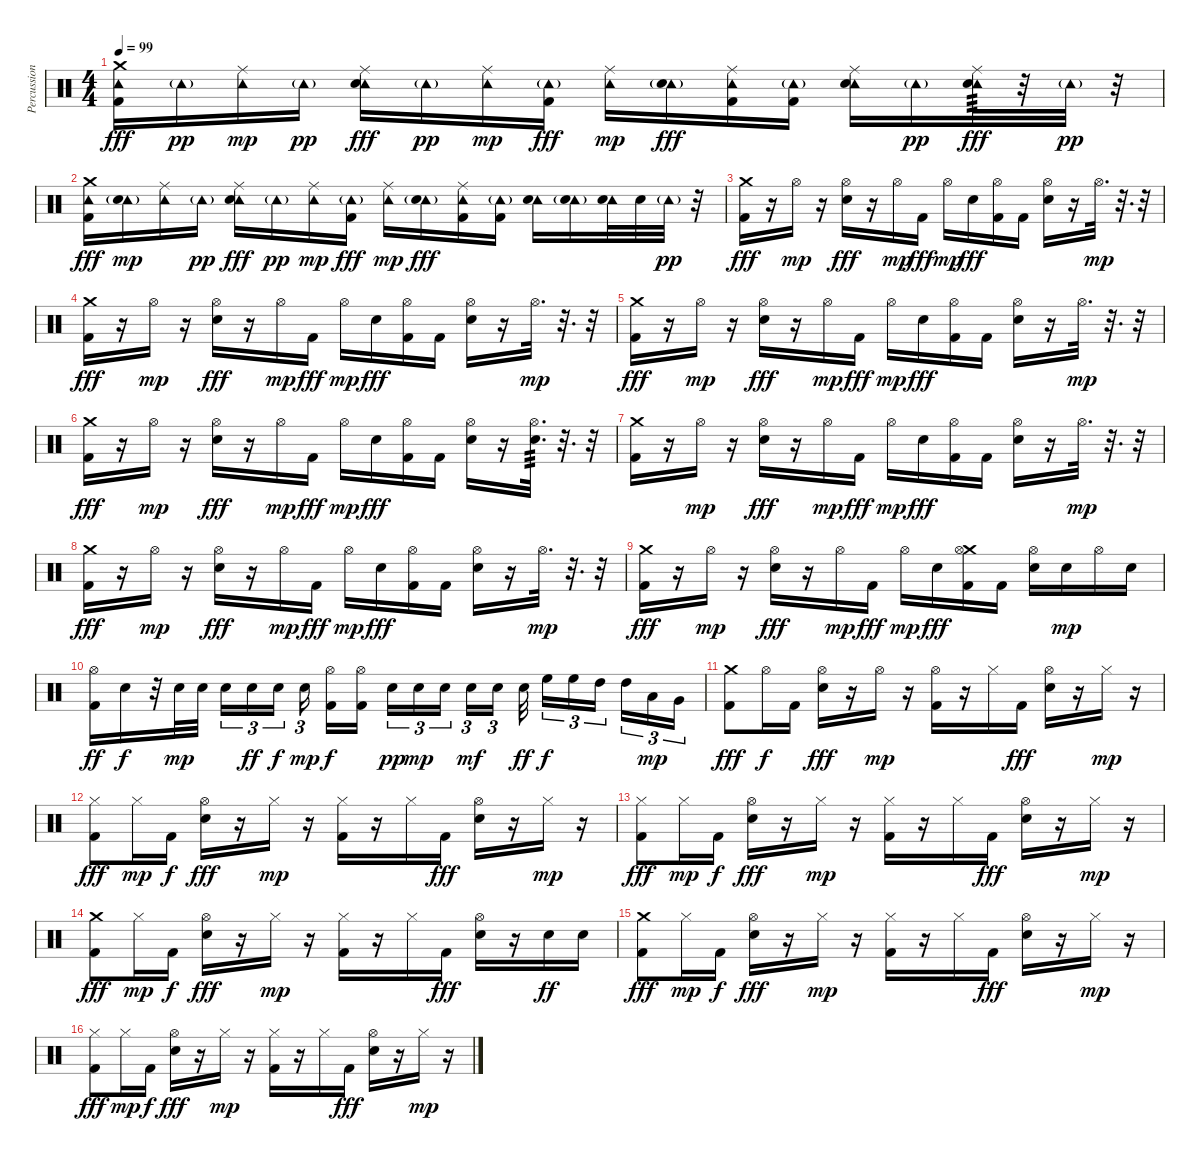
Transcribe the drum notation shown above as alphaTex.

\track ("Percussion" "Percussion") {instrument percussion}
\staff {score}
\articulation defaults
\ts (4 4)
\tempo 99
\clef neutral
\ks c
("Tambourine (hit)" "Crash medium (hit)" "Kick (hit) 2").16{dy fff} "Tambourine (hit)"{g}.16{dy pp} ("Tambourine (hit)" "Ride (middle)").16{dy mp} "Tambourine (hit)"{g}.16{dy pp} ("Tambourine (hit)" "Ride (middle)" "Snare (hit) 2").16{dy fff} "Tambourine (hit)"{g}.16{dy pp} ("Tambourine (hit)" "Ride (middle)").16{dy mp} ("Tambourine (hit)"{g} "Kick (hit) 2").16{dy fff} ("Tambourine (hit)" "Ride (middle)").16{dy mp} ("Tambourine (hit)"{g} "Snare (hit) 2").16{dy fff} ("Tambourine (hit)" "Ride (middle)" "Kick (hit) 2").16 ("Tambourine (hit)"{g} "Kick (hit) 2").16 ("Tambourine (hit)" "Ride (middle)" "Snare (hit) 2").16 "Tambourine (hit)"{g}.16{dy pp} ("Tambourine (hit)" "Ride (middle)" "Snare (hit) 2").32{tp 3 dy fff} r.32 "Tambourine (hit)"{g}.32{dy pp} r.32 |
("Tambourine (hit)" "Crash medium (hit)" "Kick (hit) 2").16{dy fff} ("Tambourine (hit)"{g} "Snare (hit) 2").16{dy mp} ("Tambourine (hit)" "Ride (middle)").16 "Tambourine (hit)"{g}.16{dy pp} ("Tambourine (hit)" "Ride (middle)" "Snare (hit) 2").16{dy fff} "Tambourine (hit)"{g}.16{dy pp} ("Tambourine (hit)" "Ride (middle)").16{dy mp} ("Tambourine (hit)"{g} "Kick (hit) 2").16{dy fff} ("Tambourine (hit)" "Ride (middle)").16{dy mp} ("Tambourine (hit)"{g} "Snare (hit) 2").16{dy fff} ("Tambourine (hit)" "Ride (middle)" "Kick (hit) 2").16 ("Tambourine (hit)"{g} "Kick (hit) 2").16 ("Tambourine (hit)" "Snare (hit) 2").16 ("Tambourine (hit)"{g} "Snare (hit) 2").16 ("Tambourine (hit)" "Snare (hit) 2").32 "Snare (hit) 2".32 "Tambourine (hit)"{g}.32{dy pp} r.32 |
("Crash medium (hit)" "Kick (hit) 2").16{dy fff} r.16 "Hi-Hat (open)".16{dy mp} r.16 ("Hi-Hat (open)" "Snare (hit) 2").16{dy fff} r.16 "Hi-Hat (open)".16{dy mp} "Kick (hit) 2".16{dy fff} "Hi-Hat (open)".16{dy mp} "Snare (hit) 2".16{dy fff} ("Hi-Hat (open)" "Kick (hit) 2").16 "Kick (hit) 2".16 ("Hi-Hat (open)" "Snare (hit) 2").16 r.16 "Hi-Hat (open)".32{d dy mp} r.32{d} r.32 |
("Crash medium (hit)" "Kick (hit) 2").16{dy fff} r.16 "Hi-Hat (open)".16{dy mp} r.16 ("Hi-Hat (open)" "Snare (hit) 2").16{dy fff} r.16 "Hi-Hat (open)".16{dy mp} "Kick (hit) 2".16{dy fff} "Hi-Hat (open)".16{dy mp} "Snare (hit) 2".16{dy fff} ("Hi-Hat (open)" "Kick (hit) 2").16 "Kick (hit) 2".16 ("Hi-Hat (open)" "Snare (hit) 2").16 r.16 "Hi-Hat (open)".32{d dy mp} r.32{d} r.32 |
("Crash medium (hit)" "Kick (hit) 2").16{dy fff} r.16 "Hi-Hat (open)".16{dy mp} r.16 ("Hi-Hat (open)" "Snare (hit) 2").16{dy fff} r.16 "Hi-Hat (open)".16{dy mp} "Kick (hit) 2".16{dy fff} "Hi-Hat (open)".16{dy mp} "Snare (hit) 2".16{dy fff} ("Hi-Hat (open)" "Kick (hit) 2").16 "Kick (hit) 2".16 ("Hi-Hat (open)" "Snare (hit) 2").16 r.16 "Hi-Hat (open)".32{d dy mp} r.32{d} r.32 |
("Crash medium (hit)" "Kick (hit) 2").16{dy fff} r.16 "Hi-Hat (open)".16{dy mp} r.16 ("Hi-Hat (open)" "Snare (hit) 2").16{dy fff} r.16 "Hi-Hat (open)".16{dy mp} "Kick (hit) 2".16{dy fff} "Hi-Hat (open)".16{dy mp} "Snare (hit) 2".16{dy fff} ("Hi-Hat (open)" "Kick (hit) 2").16 "Kick (hit) 2".16 ("Hi-Hat (open)" "Snare (hit) 2").16 r.16 ("Hi-Hat (open)" "Snare (hit) 2").32{d tp 3} r.32{d} r.32 |
("Crash medium (hit)" "Kick (hit) 2").16 r.16 "Hi-Hat (open)".16{dy mp} r.16 ("Hi-Hat (open)" "Snare (hit) 2").16{dy fff} r.16 "Hi-Hat (open)".16{dy mp} "Kick (hit) 2".16{dy fff} "Hi-Hat (open)".16{dy mp} "Snare (hit) 2".16{dy fff} ("Hi-Hat (open)" "Kick (hit) 2").16 "Kick (hit) 2".16 ("Hi-Hat (open)" "Snare (hit) 2").16 r.16 "Hi-Hat (open)".32{d dy mp} r.32{d} r.32 |
("Crash medium (hit)" "Kick (hit) 2").16{dy fff} r.16 "Hi-Hat (open)".16{dy mp} r.16 ("Hi-Hat (open)" "Snare (hit) 2").16{dy fff} r.16 "Hi-Hat (open)".16{dy mp} "Kick (hit) 2".16{dy fff} "Hi-Hat (open)".16{dy mp} "Snare (hit) 2".16{dy fff} ("Hi-Hat (open)" "Kick (hit) 2").16 "Kick (hit) 2".16 ("Hi-Hat (open)" "Snare (hit) 2").16 r.16 "Hi-Hat (open)".32{d dy mp} r.32{d} r.32 |
("Crash medium (hit)" "Kick (hit) 2").16{dy fff} r.16 "Hi-Hat (open)".16{dy mp} r.16 ("Hi-Hat (open)" "Snare (hit) 2").16{dy fff} r.16 "Hi-Hat (open)".16{dy mp} "Kick (hit) 2".16{dy fff} "Hi-Hat (open)".16{dy mp} "Snare (hit) 2".16{dy fff} ("Crash medium (hit)" "Hi-Hat (open)" "Kick (hit) 2").16 "Kick (hit) 2".16 ("Hi-Hat (open)" "Snare (hit) 2").16 "Snare (hit) 2".16{dy mp} "Hi-Hat (open)".16 "Snare (hit) 2".16 |
("Hi-Hat (open)" "Kick (hit) 2").16{dy ff} "Snare (hit) 2".16{dy f} r.32 "Snare (hit) 2".32{dy mp} "Snare (hit) 2".32{beam splitsecondary} "Snare (hit) 2".16{tu (3 2)} "Snare (hit) 2".16{tu (3 2) dy ff} "Snare (hit) 2".16{tu (3 2) dy f beam splitsecondary} "Snare (hit) 2".16{tu (3 2) dy mp beam splitsecondary} ("Hi-Hat (open)" "Kick (hit) 2").16{dy f} ("Hi-Hat (open)" "Kick (hit) 2").16 "Snare (hit) 2".16{tu (3 2) dy pp} "Snare (hit) 2".16{tu (3 2) dy mp} "Snare (hit) 2".16{tu (3 2) beam splitsecondary} "Snare (hit) 2".16{tu (3 2) dy mf} "Snare (hit) 2".16{tu (3 2) beam splitsecondary} "Snare (hit) 2".32{dy ff} "High Floor Tom (hit)".16{tu (3 2) dy f} "High Floor Tom (hit)".16{tu (3 2)} "High Tom (hit)".16{tu (3 2) beam splitsecondary} "High Tom (hit)".16{tu (3 2)} "Low Tom (hit)".16{tu (3 2) dy mp} "Very Low Tom (hit)".16{tu (3 2)} |
("Crash medium (hit)" "Kick (hit) 2").8{dy fff} "Hi-Hat (open)".16{dy f} "Kick (hit) 2".16 ("Hi-Hat (open)" "Snare (hit) 2").16{dy fff} r.16 "Hi-Hat (open)".16{dy mp} r.16 ("Hi-Hat (open)" "Kick (hit) 2").16 r.16 "Hi-Hat (closed)".16 "Kick (hit) 2".16{dy fff} ("Hi-Hat (open)" "Snare (hit) 2").16 r.16 "Hi-Hat (closed)".16{dy mp} r.16 |
("Hi-Hat (closed)" "Kick (hit) 2").8{dy fff} "Hi-Hat (closed)".16{dy mp} "Kick (hit) 2".16{dy f} ("Hi-Hat (open)" "Snare (hit) 2").16{dy fff} r.16 "Hi-Hat (closed)".16{dy mp} r.16 ("Hi-Hat (closed)" "Kick (hit) 2").16 r.16 "Hi-Hat (closed)".16 "Kick (hit) 2".16{dy fff} ("Hi-Hat (open)" "Snare (hit) 2").16 r.16 "Hi-Hat (closed)".16{dy mp} r.16 |
("Hi-Hat (closed)" "Kick (hit) 2").8{dy fff} "Hi-Hat (closed)".16{dy mp} "Kick (hit) 2".16{dy f} ("Hi-Hat (open)" "Snare (hit) 2").16{dy fff} r.16 "Hi-Hat (closed)".16{dy mp} r.16 ("Hi-Hat (closed)" "Kick (hit) 2").16 r.16 "Hi-Hat (closed)".16 "Kick (hit) 2".16{dy fff} ("Hi-Hat (open)" "Snare (hit) 2").16 r.16 "Hi-Hat (closed)".16{dy mp} r.16 |
("Crash medium (hit)" "Kick (hit) 2").8{dy fff} "Hi-Hat (closed)".16{dy mp} "Kick (hit) 2".16{dy f} ("Hi-Hat (open)" "Snare (hit) 2").16{dy fff} r.16 "Hi-Hat (closed)".16{dy mp} r.16 ("Hi-Hat (closed)" "Kick (hit) 2").16 r.16 "Hi-Hat (closed)".16 "Kick (hit) 2".16{dy fff} ("Hi-Hat (open)" "Snare (hit) 2").16 r.16 "Snare (hit) 2".16{dy ff} "Snare (hit) 2".16 |
("Crash medium (hit)" "Kick (hit) 2").8{dy fff} "Hi-Hat (closed)".16{dy mp} "Kick (hit) 2".16{dy f} ("Hi-Hat (open)" "Snare (hit) 2").16{dy fff} r.16 "Hi-Hat (closed)".16{dy mp} r.16 ("Hi-Hat (closed)" "Kick (hit) 2").16 r.16 "Hi-Hat (closed)".16 "Kick (hit) 2".16{dy fff} ("Hi-Hat (open)" "Snare (hit) 2").16 r.16 "Hi-Hat (closed)".16{dy mp} r.16 |
("Hi-Hat (closed)" "Kick (hit) 2").8{dy fff} "Hi-Hat (closed)".16{dy mp} "Kick (hit) 2".16{dy f} ("Hi-Hat (open)" "Snare (hit) 2").16{dy fff} r.16 "Hi-Hat (closed)".16{dy mp} r.16 ("Hi-Hat (closed)" "Kick (hit) 2").16 r.16 "Hi-Hat (closed)".16 "Kick (hit) 2".16{dy fff} ("Hi-Hat (open)" "Snare (hit) 2").16 r.16 "Hi-Hat (closed)".16{dy mp} r.16
